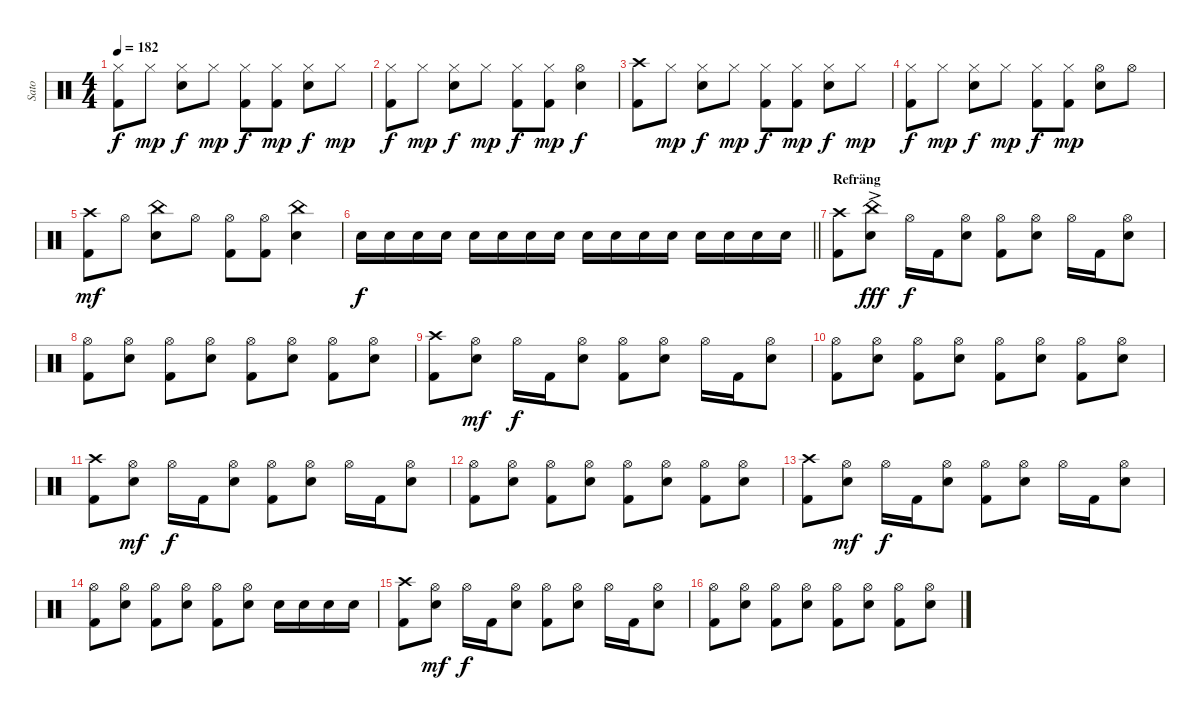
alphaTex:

\track ("Sato" "Sato") {instrument percussion}
\staff {score}
\articulation defaults
\ts (4 4)
\tempo 182
\clef neutral
\ks c
("Hi-Hat (closed)" "Kick (hit) 2").8{dy f} "Hi-Hat (closed)".8{dy mp} ("Hi-Hat (closed)" "Electric Snare (hit)").8{dy f} "Hi-Hat (closed)".8{dy mp} ("Hi-Hat (closed)" "Kick (hit) 2").8{dy f} ("Hi-Hat (closed)" "Kick (hit) 2").8{dy mp} ("Hi-Hat (closed)" "Electric Snare (hit)").8{dy f} "Hi-Hat (closed)".8{dy mp} |
("Hi-Hat (closed)" "Kick (hit) 2").8{dy f} "Hi-Hat (closed)".8{dy mp} ("Hi-Hat (closed)" "Electric Snare (hit)").8{dy f} "Hi-Hat (closed)".8{dy mp} ("Hi-Hat (closed)" "Kick (hit) 2").8{dy f} ("Hi-Hat (closed)" "Kick (hit) 2").8{dy mp} ("Hi-Hat (open)" "Electric Snare (hit)").4{dy f} |
("Crash high (hit)" "Kick (hit) 2").8 "Hi-Hat (closed)".8{dy mp} ("Hi-Hat (closed)" "Electric Snare (hit)").8{dy f} "Hi-Hat (closed)".8{dy mp} ("Hi-Hat (closed)" "Kick (hit) 2").8{dy f} ("Hi-Hat (closed)" "Kick (hit) 2").8{dy mp} ("Hi-Hat (closed)" "Electric Snare (hit)").8{dy f} "Hi-Hat (closed)".8{dy mp} |
("Hi-Hat (closed)" "Kick (hit) 2").8{dy f} "Hi-Hat (closed)".8{dy mp} ("Hi-Hat (closed)" "Electric Snare (hit)").8{dy f} "Hi-Hat (closed)".8{dy mp} ("Hi-Hat (closed)" "Kick (hit) 2").8{dy f} ("Hi-Hat (closed)" "Kick (hit) 2").8{dy mp} ("Hi-Hat (open)" "Electric Snare (hit)").8 "Hi-Hat (open)".8 |
("Crash high (hit)" "Kick (hit) 2").8{dy mf} "Hi-Hat (open)".8 ("China (hit)" "Electric Snare (hit)").8 "Hi-Hat (open)".8 ("Hi-Hat (open)" "Kick (hit) 2").8 ("Hi-Hat (open)" "Kick (hit) 2").8 ("China (hit)" "Electric Snare (hit)").4 |
\barLineRight lightlight "Electric Snare (hit)".16{dy f} "Electric Snare (hit)".16 "Electric Snare (hit)".16 "Electric Snare (hit)".16 "Electric Snare (hit)".16 "Electric Snare (hit)".16 "Electric Snare (hit)".16 "Electric Snare (hit)".16 "Electric Snare (hit)".16 "Electric Snare (hit)".16 "Electric Snare (hit)".16 "Electric Snare (hit)".16 "Electric Snare (hit)".16 "Electric Snare (hit)".16 "Electric Snare (hit)".16 "Electric Snare (hit)".16
|
\section ("" "Refräng")
("Crash high (hit)" "Kick (hit) 2").8 ("China (hit)" "Electric Snare (hit)"{ac}).8{dy fff} "Hi-Hat (open)".16{dy f} "Kick (hit) 2".16 ("Hi-Hat (open)" "Electric Snare (hit)").8 ("Hi-Hat (open)" "Kick (hit) 2").8 ("Hi-Hat (open)" "Electric Snare (hit)").8 "Hi-Hat (open)".16 "Kick (hit) 2".16 ("Hi-Hat (open)" "Electric Snare (hit)").8 |
("Hi-Hat (open)" "Kick (hit) 2").8 ("Hi-Hat (open)" "Electric Snare (hit)").8 ("Hi-Hat (open)" "Kick (hit) 2").8 ("Hi-Hat (open)" "Electric Snare (hit)").8 ("Hi-Hat (open)" "Kick (hit) 2").8 ("Hi-Hat (open)" "Electric Snare (hit)").8 ("Hi-Hat (open)" "Kick (hit) 2").8 ("Hi-Hat (open)" "Electric Snare (hit)").8 |
("Crash high (hit)" "Kick (hit) 2").8 ("Hi-Hat (open)" "Electric Snare (hit)").8{dy mf} "Hi-Hat (open)".16{dy f} "Kick (hit) 2".16 ("Hi-Hat (open)" "Electric Snare (hit)").8 ("Hi-Hat (open)" "Kick (hit) 2").8 ("Hi-Hat (open)" "Electric Snare (hit)").8 "Hi-Hat (open)".16 "Kick (hit) 2".16 ("Hi-Hat (open)" "Electric Snare (hit)").8 |
("Hi-Hat (open)" "Kick (hit) 2").8 ("Hi-Hat (open)" "Electric Snare (hit)").8 ("Hi-Hat (open)" "Kick (hit) 2").8 ("Hi-Hat (open)" "Electric Snare (hit)").8 ("Hi-Hat (open)" "Kick (hit) 2").8 ("Hi-Hat (open)" "Electric Snare (hit)").8 ("Hi-Hat (open)" "Kick (hit) 2").8 ("Hi-Hat (open)" "Electric Snare (hit)").8 |
("Crash high (hit)" "Kick (hit) 2").8 ("Hi-Hat (open)" "Electric Snare (hit)").8{dy mf} "Hi-Hat (open)".16{dy f} "Kick (hit) 2".16 ("Hi-Hat (open)" "Electric Snare (hit)").8 ("Hi-Hat (open)" "Kick (hit) 2").8 ("Hi-Hat (open)" "Electric Snare (hit)").8 "Hi-Hat (open)".16 "Kick (hit) 2".16 ("Hi-Hat (open)" "Electric Snare (hit)").8 |
("Hi-Hat (open)" "Kick (hit) 2").8 ("Hi-Hat (open)" "Electric Snare (hit)").8 ("Hi-Hat (open)" "Kick (hit) 2").8 ("Hi-Hat (open)" "Electric Snare (hit)").8 ("Hi-Hat (open)" "Kick (hit) 2").8 ("Hi-Hat (open)" "Electric Snare (hit)").8 ("Hi-Hat (open)" "Kick (hit) 2").8 ("Hi-Hat (open)" "Electric Snare (hit)").8 |
("Crash high (hit)" "Kick (hit) 2").8 ("Hi-Hat (open)" "Electric Snare (hit)").8{dy mf} "Hi-Hat (open)".16{dy f} "Kick (hit) 2".16 ("Hi-Hat (open)" "Electric Snare (hit)").8 ("Hi-Hat (open)" "Kick (hit) 2").8 ("Hi-Hat (open)" "Electric Snare (hit)").8 "Hi-Hat (open)".16 "Kick (hit) 2".16 ("Hi-Hat (open)" "Electric Snare (hit)").8 |
("Hi-Hat (open)" "Kick (hit) 2").8 ("Hi-Hat (open)" "Electric Snare (hit)").8 ("Hi-Hat (open)" "Kick (hit) 2").8 ("Hi-Hat (open)" "Electric Snare (hit)").8 ("Hi-Hat (open)" "Kick (hit) 2").8 ("Hi-Hat (open)" "Electric Snare (hit)").8 "Electric Snare (hit)".16 "Electric Snare (hit)".16 "Electric Snare (hit)".16 "Electric Snare (hit)".16 |
("Crash high (hit)" "Kick (hit) 2").8 ("Hi-Hat (open)" "Electric Snare (hit)").8{dy mf} "Hi-Hat (open)".16{dy f} "Kick (hit) 2".16 ("Hi-Hat (open)" "Electric Snare (hit)").8 ("Hi-Hat (open)" "Kick (hit) 2").8 ("Hi-Hat (open)" "Electric Snare (hit)").8 "Hi-Hat (open)".16 "Kick (hit) 2".16 ("Hi-Hat (open)" "Electric Snare (hit)").8 |
("Hi-Hat (open)" "Kick (hit) 2").8 ("Hi-Hat (open)" "Electric Snare (hit)").8 ("Hi-Hat (open)" "Kick (hit) 2").8 ("Hi-Hat (open)" "Electric Snare (hit)").8 ("Hi-Hat (open)" "Kick (hit) 2").8 ("Hi-Hat (open)" "Electric Snare (hit)").8 ("Hi-Hat (open)" "Kick (hit) 2").8 ("Hi-Hat (open)" "Electric Snare (hit)").8
